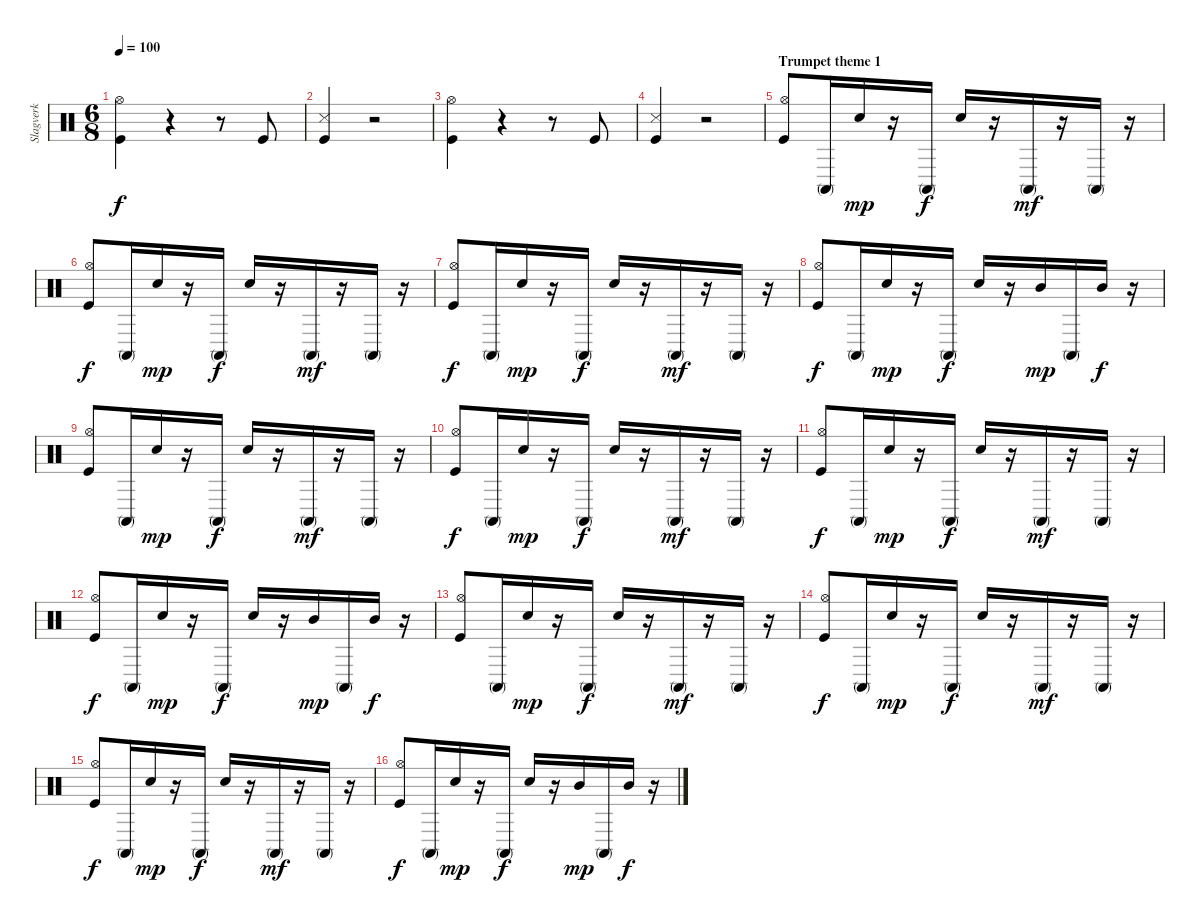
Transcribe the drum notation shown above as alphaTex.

\track ("Slagverk" "Slagverk") {instrument percussion}
\staff {score}
\articulation defaults
\ts (6 8)
\tempo 100
\clef neutral
\ks c
("Hi-Hat (open)" "Kick (hit)").4{dy f} r.4 r.8 "Kick (hit)".8 |
("Snare (side stick) 3" "Kick (hit)").4 r.2 |
("Hi-Hat (open)" "Kick (hit)").4 r.4 r.8 "Kick (hit)".8 |
("Snare (side stick) 3" "Kick (hit)").4 r.2 |
\section ("" "Trumpet theme 1")
("Hi-Hat (open)" "Kick (hit)").8 "Conga high (mute)".16 "Snare (hit) 2".16{dy mp} r.16 "Conga high (mute)".16{dy f} "Snare (hit) 2".16 r.16 "Conga high (mute)".16{dy mf} r.16 "Conga high (mute)".16 r.16 |
("Hi-Hat (open)" "Kick (hit)").8{dy f} "Conga high (mute)".16 "Snare (hit) 2".16{dy mp} r.16 "Conga high (mute)".16{dy f} "Snare (hit) 2".16 r.16 "Conga high (mute)".16{dy mf} r.16 "Conga high (mute)".16 r.16 |
("Hi-Hat (open)" "Kick (hit)").8{dy f} "Conga high (mute)".16 "Snare (hit) 2".16{dy mp} r.16 "Conga high (mute)".16{dy f} "Snare (hit) 2".16 r.16 "Conga high (mute)".16{dy mf} r.16 "Conga high (mute)".16 r.16 |
("Hi-Hat (open)" "Kick (hit)").8{dy f} "Conga high (mute)".16 "Snare (hit) 2".16{dy mp} r.16 "Conga high (mute)".16{dy f} "Snare (hit) 2".16 r.16 "Mid Tom (hit)".16{dy mp} "Conga high (mute)".16 "Mid Tom (hit)".16{dy f} r.16 |
("Hi-Hat (open)" "Kick (hit)").8 "Conga high (mute)".16 "Snare (hit) 2".16{dy mp} r.16 "Conga high (mute)".16{dy f} "Snare (hit) 2".16 r.16 "Conga high (mute)".16{dy mf} r.16 "Conga high (mute)".16 r.16 |
("Hi-Hat (open)" "Kick (hit)").8{dy f} "Conga high (mute)".16 "Snare (hit) 2".16{dy mp} r.16 "Conga high (mute)".16{dy f} "Snare (hit) 2".16 r.16 "Conga high (mute)".16{dy mf} r.16 "Conga high (mute)".16 r.16 |
("Hi-Hat (open)" "Kick (hit)").8{dy f} "Conga high (mute)".16 "Snare (hit) 2".16{dy mp} r.16 "Conga high (mute)".16{dy f} "Snare (hit) 2".16 r.16 "Conga high (mute)".16{dy mf} r.16 "Conga high (mute)".16 r.16 |
("Hi-Hat (open)" "Kick (hit)").8{dy f} "Conga high (mute)".16 "Snare (hit) 2".16{dy mp} r.16 "Conga high (mute)".16{dy f} "Snare (hit) 2".16 r.16 "Mid Tom (hit)".16{dy mp} "Conga high (mute)".16 "Mid Tom (hit)".16{dy f} r.16 |
("Hi-Hat (open)" "Kick (hit)").8 "Conga high (mute)".16 "Snare (hit) 2".16{dy mp} r.16 "Conga high (mute)".16{dy f} "Snare (hit) 2".16 r.16 "Conga high (mute)".16{dy mf} r.16 "Conga high (mute)".16 r.16 |
("Hi-Hat (open)" "Kick (hit)").8{dy f} "Conga high (mute)".16 "Snare (hit) 2".16{dy mp} r.16 "Conga high (mute)".16{dy f} "Snare (hit) 2".16 r.16 "Conga high (mute)".16{dy mf} r.16 "Conga high (mute)".16 r.16 |
("Hi-Hat (open)" "Kick (hit)").8{dy f} "Conga high (mute)".16 "Snare (hit) 2".16{dy mp} r.16 "Conga high (mute)".16{dy f} "Snare (hit) 2".16 r.16 "Conga high (mute)".16{dy mf} r.16 "Conga high (mute)".16 r.16 |
("Hi-Hat (open)" "Kick (hit)").8{dy f} "Conga high (mute)".16 "Snare (hit) 2".16{dy mp} r.16 "Conga high (mute)".16{dy f} "Snare (hit) 2".16 r.16 "Mid Tom (hit)".16{dy mp} "Conga high (mute)".16 "Mid Tom (hit)".16{dy f} r.16
